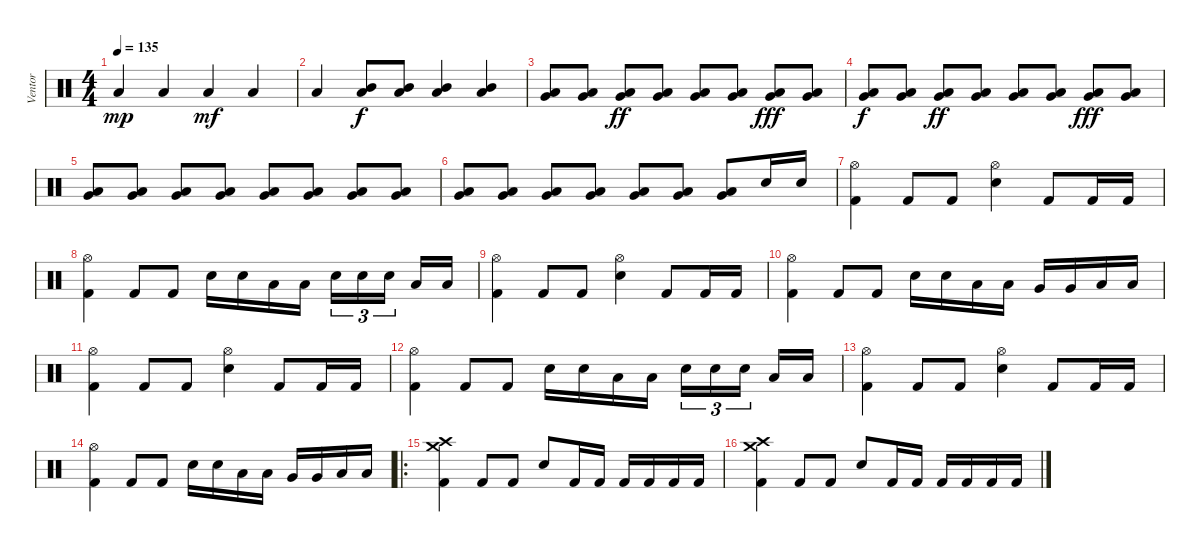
\track ("Ventor" "Ventor") {instrument percussion}
\staff {score}
\articulation defaults
\ts (4 4)
\tempo 135
\clef neutral
\ks c "Low Tom (hit)".4{dy mp} "Low Tom (hit)".4 "Low Tom (hit)".4{dy mf} "Low Tom (hit)".4
|
"Low Tom (hit)".4 ("Mid Tom (hit)" "Low Tom (hit)").8{dy f} ("Mid Tom (hit)" "Low Tom (hit)").8 ("Mid Tom (hit)" "Low Tom (hit)").4 ("Mid Tom (hit)" "Low Tom (hit)").4 |
("Very Low Tom (hit)" "Low Floor Tom (hit)").8 ("Very Low Tom (hit)" "Low Floor Tom (hit)").8 ("Very Low Tom (hit)" "Low Floor Tom (hit)").8{dy ff} ("Very Low Tom (hit)" "Low Floor Tom (hit)").8 ("Very Low Tom (hit)" "Low Floor Tom (hit)").8 ("Very Low Tom (hit)" "Low Floor Tom (hit)").8 ("Very Low Tom (hit)" "Low Floor Tom (hit)").8{dy fff} ("Very Low Tom (hit)" "Low Floor Tom (hit)").8 |
("Very Low Tom (hit)" "Low Floor Tom (hit)").8{dy f} ("Very Low Tom (hit)" "Low Floor Tom (hit)").8 ("Very Low Tom (hit)" "Low Floor Tom (hit)").8{dy ff} ("Very Low Tom (hit)" "Low Floor Tom (hit)").8 ("Very Low Tom (hit)" "Low Floor Tom (hit)").8 ("Very Low Tom (hit)" "Low Floor Tom (hit)").8 ("Very Low Tom (hit)" "Low Floor Tom (hit)").8{dy fff} ("Very Low Tom (hit)" "Low Floor Tom (hit)").8 |
("Very Low Tom (hit)" "Low Floor Tom (hit)").8 ("Very Low Tom (hit)" "Low Floor Tom (hit)").8 ("Very Low Tom (hit)" "Low Floor Tom (hit)").8 ("Very Low Tom (hit)" "Low Floor Tom (hit)").8 ("Very Low Tom (hit)" "Low Floor Tom (hit)").8 ("Very Low Tom (hit)" "Low Floor Tom (hit)").8 ("Very Low Tom (hit)" "Low Floor Tom (hit)").8 ("Very Low Tom (hit)" "Low Floor Tom (hit)").8 |
("Very Low Tom (hit)" "Low Floor Tom (hit)").8 ("Very Low Tom (hit)" "Low Floor Tom (hit)").8 ("Very Low Tom (hit)" "Low Floor Tom (hit)").8 ("Very Low Tom (hit)" "Low Floor Tom (hit)").8 ("Very Low Tom (hit)" "Low Floor Tom (hit)").8 ("Very Low Tom (hit)" "Low Floor Tom (hit)").8 ("Very Low Tom (hit)" "Low Floor Tom (hit)").8 "Electric Snare (hit)".16 "Electric Snare (hit)".16 |
("Hi-Hat (open)" "Kick (hit) 2").4 "Kick (hit) 2".8 "Kick (hit) 2".8 ("Hi-Hat (open)" "Electric Snare (hit)").4 "Kick (hit) 2".8 "Kick (hit) 2".16 "Kick (hit) 2".16 |
("Hi-Hat (open)" "Kick (hit) 2").4 "Kick (hit) 2".8 "Kick (hit) 2".8 "Electric Snare (hit)".16 "Electric Snare (hit)".16 "Low Tom (hit)".16 "Low Tom (hit)".16 "Electric Snare (hit)".16{tu (3 2)} "Electric Snare (hit)".16{tu (3 2)} "Electric Snare (hit)".16{tu (3 2) beam splitsecondary} "Low Tom (hit)".16 "Low Tom (hit)".16 |
("Hi-Hat (open)" "Kick (hit) 2").4 "Kick (hit) 2".8 "Kick (hit) 2".8 ("Hi-Hat (open)" "Electric Snare (hit)").4 "Kick (hit) 2".8 "Kick (hit) 2".16 "Kick (hit) 2".16 |
("Hi-Hat (open)" "Kick (hit) 2").4 "Kick (hit) 2".8 "Kick (hit) 2".8 "Electric Snare (hit)".16 "Electric Snare (hit)".16 "Low Tom (hit)".16 "Low Tom (hit)".16 "Very Low Tom (hit)".16 "Very Low Tom (hit)".16 "Low Floor Tom (hit)".16 "Low Floor Tom (hit)".16 |
("Hi-Hat (open)" "Kick (hit) 2").4 "Kick (hit) 2".8 "Kick (hit) 2".8 ("Hi-Hat (open)" "Electric Snare (hit)").4 "Kick (hit) 2".8 "Kick (hit) 2".16 "Kick (hit) 2".16 |
("Hi-Hat (open)" "Kick (hit) 2").4 "Kick (hit) 2".8 "Kick (hit) 2".8 "Electric Snare (hit)".16 "Electric Snare (hit)".16 "Low Tom (hit)".16 "Low Tom (hit)".16 "Electric Snare (hit)".16{tu (3 2)} "Electric Snare (hit)".16{tu (3 2)} "Electric Snare (hit)".16{tu (3 2) beam splitsecondary} "Low Tom (hit)".16 "Low Tom (hit)".16 |
("Hi-Hat (open)" "Kick (hit) 2").4 "Kick (hit) 2".8 "Kick (hit) 2".8 ("Hi-Hat (open)" "Electric Snare (hit)").4 "Kick (hit) 2".8 "Kick (hit) 2".16 "Kick (hit) 2".16 |
("Hi-Hat (open)" "Kick (hit) 2").4 "Kick (hit) 2".8 "Kick (hit) 2".8 "Electric Snare (hit)".16 "Electric Snare (hit)".16 "Low Tom (hit)".16 "Low Tom (hit)".16 "Very Low Tom (hit)".16 "Very Low Tom (hit)".16 "Low Floor Tom (hit)".16 "Low Floor Tom (hit)".16 |
\ro
("Crash medium (hit)" "Crash high (hit)" "Kick (hit) 2").4 "Kick (hit) 2".8 "Kick (hit) 2".8 "Electric Snare (hit)".8 "Kick (hit) 2".16 "Kick (hit) 2".16 "Kick (hit) 2".16 "Kick (hit) 2".16 "Kick (hit) 2".16 "Kick (hit) 2".16 |
("Crash medium (hit)" "Crash high (hit)" "Kick (hit) 2").4 "Kick (hit) 2".8 "Kick (hit) 2".8 "Electric Snare (hit)".8 "Kick (hit) 2".16 "Kick (hit) 2".16 "Kick (hit) 2".16 "Kick (hit) 2".16 "Kick (hit) 2".16 "Kick (hit) 2".16
